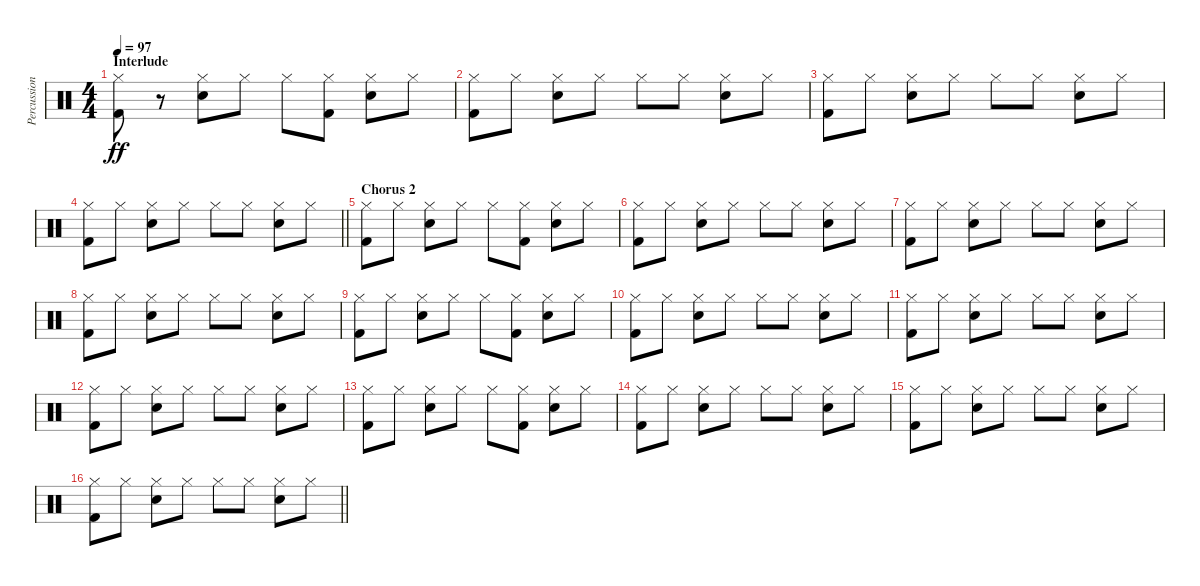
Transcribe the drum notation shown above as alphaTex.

\track ("Percussion" "Percussion") {instrument percussion}
\staff {score}
\articulation defaults
\ts (4 4)
\section ("" "Interlude")
\tempo 97
\clef neutral
\ks c
("Hi-Hat (closed)" "Kick (hit) 2").8{dy ff} r.8 ("Hi-Hat (closed)" "Snare (hit) 2").8 "Hi-Hat (closed)".8 "Hi-Hat (closed)".8 ("Hi-Hat (closed)" "Kick (hit) 2").8 ("Hi-Hat (closed)" "Snare (hit) 2").8 "Hi-Hat (closed)".8 |
("Hi-Hat (closed)" "Kick (hit) 2").8 "Hi-Hat (closed)".8 ("Hi-Hat (closed)" "Snare (hit) 2").8 "Hi-Hat (closed)".8 "Hi-Hat (closed)".8 "Hi-Hat (closed)".8 ("Hi-Hat (closed)" "Snare (hit) 2").8 "Hi-Hat (closed)".8 |
("Hi-Hat (closed)" "Kick (hit) 2").8 "Hi-Hat (closed)".8 ("Hi-Hat (closed)" "Snare (hit) 2").8 "Hi-Hat (closed)".8 "Hi-Hat (closed)".8 "Hi-Hat (closed)".8 ("Hi-Hat (closed)" "Snare (hit) 2").8 "Hi-Hat (closed)".8 |
\barLineRight lightlight
("Hi-Hat (closed)" "Kick (hit) 2").8 "Hi-Hat (closed)".8 ("Hi-Hat (closed)" "Snare (hit) 2").8 "Hi-Hat (closed)".8 "Hi-Hat (closed)".8 "Hi-Hat (closed)".8 ("Hi-Hat (closed)" "Snare (hit) 2").8 "Hi-Hat (closed)".8 |
\section ("" "Chorus 2")
("Hi-Hat (closed)" "Kick (hit) 2").8 "Hi-Hat (closed)".8 ("Hi-Hat (closed)" "Snare (hit) 2").8 "Hi-Hat (closed)".8 "Hi-Hat (closed)".8 ("Hi-Hat (closed)" "Kick (hit) 2").8 ("Hi-Hat (closed)" "Snare (hit) 2").8 "Hi-Hat (closed)".8 |
("Hi-Hat (closed)" "Kick (hit) 2").8 "Hi-Hat (closed)".8 ("Hi-Hat (closed)" "Snare (hit) 2").8 "Hi-Hat (closed)".8 "Hi-Hat (closed)".8 "Hi-Hat (closed)".8 ("Hi-Hat (closed)" "Snare (hit) 2").8 "Hi-Hat (closed)".8 |
("Hi-Hat (closed)" "Kick (hit) 2").8 "Hi-Hat (closed)".8 ("Hi-Hat (closed)" "Snare (hit) 2").8 "Hi-Hat (closed)".8 "Hi-Hat (closed)".8 "Hi-Hat (closed)".8 ("Hi-Hat (closed)" "Snare (hit) 2").8 "Hi-Hat (closed)".8 |
("Hi-Hat (closed)" "Kick (hit) 2").8 "Hi-Hat (closed)".8 ("Hi-Hat (closed)" "Snare (hit) 2").8 "Hi-Hat (closed)".8 "Hi-Hat (closed)".8 "Hi-Hat (closed)".8 ("Hi-Hat (closed)" "Snare (hit) 2").8 "Hi-Hat (closed)".8 |
("Hi-Hat (closed)" "Kick (hit) 2").8 "Hi-Hat (closed)".8 ("Hi-Hat (closed)" "Snare (hit) 2").8 "Hi-Hat (closed)".8 "Hi-Hat (closed)".8 ("Hi-Hat (closed)" "Kick (hit) 2").8 ("Hi-Hat (closed)" "Snare (hit) 2").8 "Hi-Hat (closed)".8 |
("Hi-Hat (closed)" "Kick (hit) 2").8 "Hi-Hat (closed)".8 ("Hi-Hat (closed)" "Snare (hit) 2").8 "Hi-Hat (closed)".8 "Hi-Hat (closed)".8 "Hi-Hat (closed)".8 ("Hi-Hat (closed)" "Snare (hit) 2").8 "Hi-Hat (closed)".8 |
("Hi-Hat (closed)" "Kick (hit) 2").8 "Hi-Hat (closed)".8 ("Hi-Hat (closed)" "Snare (hit) 2").8 "Hi-Hat (closed)".8 "Hi-Hat (closed)".8 "Hi-Hat (closed)".8 ("Hi-Hat (closed)" "Snare (hit) 2").8 "Hi-Hat (closed)".8 |
("Hi-Hat (closed)" "Kick (hit) 2").8 "Hi-Hat (closed)".8 ("Hi-Hat (closed)" "Snare (hit) 2").8 "Hi-Hat (closed)".8 "Hi-Hat (closed)".8 "Hi-Hat (closed)".8 ("Hi-Hat (closed)" "Snare (hit) 2").8 "Hi-Hat (closed)".8 |
("Hi-Hat (closed)" "Kick (hit) 2").8 "Hi-Hat (closed)".8 ("Hi-Hat (closed)" "Snare (hit) 2").8 "Hi-Hat (closed)".8 "Hi-Hat (closed)".8 ("Hi-Hat (closed)" "Kick (hit) 2").8 ("Hi-Hat (closed)" "Snare (hit) 2").8 "Hi-Hat (closed)".8 |
("Hi-Hat (closed)" "Kick (hit) 2").8 "Hi-Hat (closed)".8 ("Hi-Hat (closed)" "Snare (hit) 2").8 "Hi-Hat (closed)".8 "Hi-Hat (closed)".8 "Hi-Hat (closed)".8 ("Hi-Hat (closed)" "Snare (hit) 2").8 "Hi-Hat (closed)".8 |
("Hi-Hat (closed)" "Kick (hit) 2").8 "Hi-Hat (closed)".8 ("Hi-Hat (closed)" "Snare (hit) 2").8 "Hi-Hat (closed)".8 "Hi-Hat (closed)".8 "Hi-Hat (closed)".8 ("Hi-Hat (closed)" "Snare (hit) 2").8 "Hi-Hat (closed)".8 |
\barLineRight lightlight
("Hi-Hat (closed)" "Kick (hit) 2").8 "Hi-Hat (closed)".8 ("Hi-Hat (closed)" "Snare (hit) 2").8 "Hi-Hat (closed)".8 "Hi-Hat (closed)".8 "Hi-Hat (closed)".8 ("Hi-Hat (closed)" "Snare (hit) 2").8 "Hi-Hat (closed)".8
